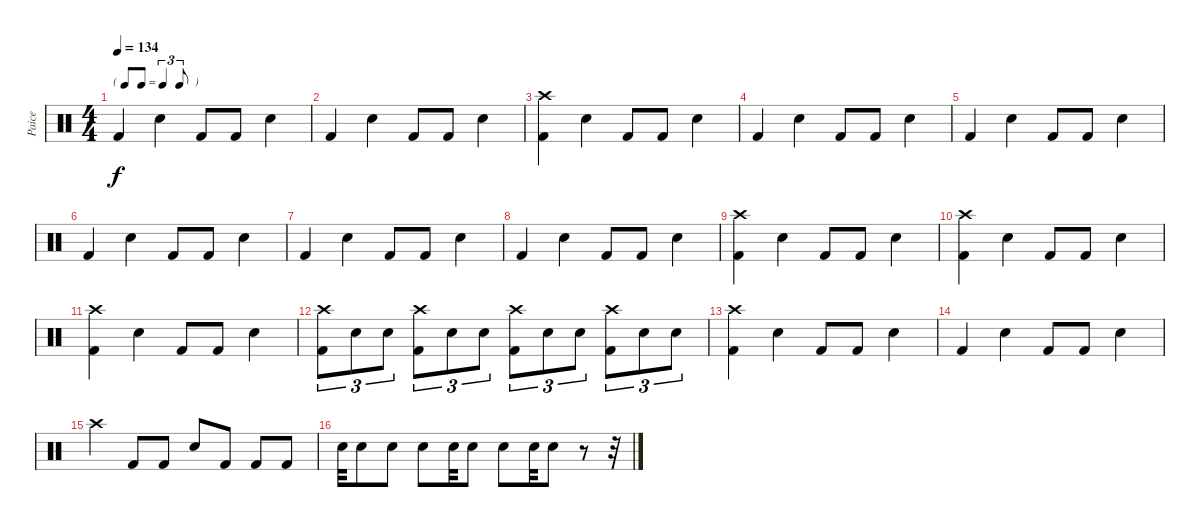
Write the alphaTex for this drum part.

\track ("Paice" "Paice") {instrument percussion}
\staff {score}
\articulation defaults
\ts (4 4)
\tf triplet8th
\tempo 134
\clef neutral
\ks c "Kick (hit) 2".4{dy f} "Electric Snare (hit)".4 "Kick (hit) 2".8 "Kick (hit) 2".8 "Electric Snare (hit)".4
|
"Kick (hit) 2".4 "Electric Snare (hit)".4 "Kick (hit) 2".8 "Kick (hit) 2".8 "Electric Snare (hit)".4 |
("Kick (hit) 2" "Crash high (hit)").4 "Electric Snare (hit)".4 "Kick (hit) 2".8 "Kick (hit) 2".8 "Electric Snare (hit)".4 |
"Kick (hit) 2".4 "Electric Snare (hit)".4 "Kick (hit) 2".8 "Kick (hit) 2".8 "Electric Snare (hit)".4 |
"Kick (hit) 2".4 "Electric Snare (hit)".4 "Kick (hit) 2".8 "Kick (hit) 2".8 "Electric Snare (hit)".4 |
"Kick (hit) 2".4 "Electric Snare (hit)".4 "Kick (hit) 2".8 "Kick (hit) 2".8 "Electric Snare (hit)".4 |
"Kick (hit) 2".4 "Electric Snare (hit)".4 "Kick (hit) 2".8 "Kick (hit) 2".8 "Electric Snare (hit)".4 |
"Kick (hit) 2".4 "Electric Snare (hit)".4 "Kick (hit) 2".8 "Kick (hit) 2".8 "Electric Snare (hit)".4 |
("Kick (hit) 2" "Crash high (hit)").4 "Electric Snare (hit)".4 "Kick (hit) 2".8 "Kick (hit) 2".8 "Electric Snare (hit)".4 |
("Kick (hit) 2" "Crash high (hit)").4 "Electric Snare (hit)".4 "Kick (hit) 2".8 "Kick (hit) 2".8 "Electric Snare (hit)".4 |
("Kick (hit) 2" "Crash high (hit)").4 "Electric Snare (hit)".4 "Kick (hit) 2".8 "Kick (hit) 2".8 "Electric Snare (hit)".4 |
("Kick (hit) 2" "Crash high (hit)").8{tu (3 2)} "Electric Snare (hit)".8{tu (3 2)} "Electric Snare (hit)".8{tu (3 2)} ("Kick (hit) 2" "Crash high (hit)").8{tu (3 2)} "Electric Snare (hit)".8{tu (3 2)} "Electric Snare (hit)".8{tu (3 2)} ("Kick (hit) 2" "Crash high (hit)").8{tu (3 2)} "Electric Snare (hit)".8{tu (3 2)} "Electric Snare (hit)".8{tu (3 2)} ("Kick (hit) 2" "Crash high (hit)").8{tu (3 2)} "Electric Snare (hit)".8{tu (3 2)} "Electric Snare (hit)".8{tu (3 2)} |
("Kick (hit) 2" "Crash high (hit)").4 "Electric Snare (hit)".4 "Kick (hit) 2".8 "Kick (hit) 2".8 "Electric Snare (hit)".4 |
"Kick (hit) 2".4 "Electric Snare (hit)".4 "Kick (hit) 2".8 "Kick (hit) 2".8 "Electric Snare (hit)".4 |
"Crash high (hit)".4 "Kick (hit) 2".8 "Kick (hit) 2".8 "Electric Snare (hit)".8 "Kick (hit) 2".8 "Kick (hit) 2".8 "Kick (hit) 2".8 |
"Electric Snare (hit)".32 "Electric Snare (hit)".8 "Electric Snare (hit)".8 "Electric Snare (hit)".8 "Electric Snare (hit)".32 "Electric Snare (hit)".8 "Electric Snare (hit)".8 "Electric Snare (hit)".32 "Electric Snare (hit)".8 r.8 r.32
